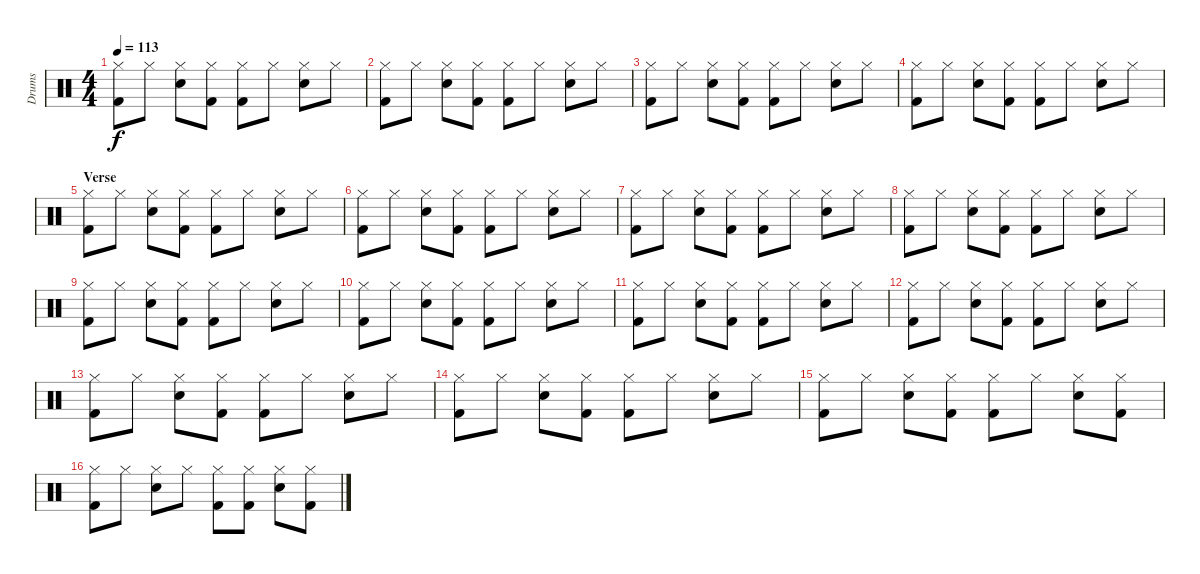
\track ("Drums" "Drums") {instrument percussion}
\staff {score}
\articulation defaults
\ts (4 4)
\tempo 113
\clef neutral
\ks c
("Hi-Hat (closed)" "Kick (hit) 2").8{dy f} "Hi-Hat (closed)".8 ("Hi-Hat (closed)" "Snare (hit) 2").8 ("Hi-Hat (closed)" "Kick (hit) 2").8 ("Hi-Hat (closed)" "Kick (hit) 2").8 "Hi-Hat (closed)".8 ("Hi-Hat (closed)" "Snare (hit) 2").8 "Hi-Hat (closed)".8 |
("Hi-Hat (closed)" "Kick (hit) 2").8 "Hi-Hat (closed)".8 ("Hi-Hat (closed)" "Snare (hit) 2").8 ("Hi-Hat (closed)" "Kick (hit) 2").8 ("Hi-Hat (closed)" "Kick (hit) 2").8 "Hi-Hat (closed)".8 ("Hi-Hat (closed)" "Snare (hit) 2").8 "Hi-Hat (closed)".8 |
("Hi-Hat (closed)" "Kick (hit) 2").8 "Hi-Hat (closed)".8 ("Hi-Hat (closed)" "Snare (hit) 2").8 ("Hi-Hat (closed)" "Kick (hit) 2").8 ("Hi-Hat (closed)" "Kick (hit) 2").8 "Hi-Hat (closed)".8 ("Hi-Hat (closed)" "Snare (hit) 2").8 "Hi-Hat (closed)".8 |
("Hi-Hat (closed)" "Kick (hit) 2").8 "Hi-Hat (closed)".8 ("Hi-Hat (closed)" "Snare (hit) 2").8 ("Hi-Hat (closed)" "Kick (hit) 2").8 ("Hi-Hat (closed)" "Kick (hit) 2").8 "Hi-Hat (closed)".8 ("Hi-Hat (closed)" "Snare (hit) 2").8 "Hi-Hat (closed)".8 |
\section ("" "Verse")
("Hi-Hat (closed)" "Kick (hit) 2").8 "Hi-Hat (closed)".8 ("Hi-Hat (closed)" "Snare (hit) 2").8 ("Hi-Hat (closed)" "Kick (hit) 2").8 ("Hi-Hat (closed)" "Kick (hit) 2").8 "Hi-Hat (closed)".8 ("Hi-Hat (closed)" "Snare (hit) 2").8 "Hi-Hat (closed)".8 |
("Hi-Hat (closed)" "Kick (hit) 2").8 "Hi-Hat (closed)".8 ("Hi-Hat (closed)" "Snare (hit) 2").8 ("Hi-Hat (closed)" "Kick (hit) 2").8 ("Hi-Hat (closed)" "Kick (hit) 2").8 "Hi-Hat (closed)".8 ("Hi-Hat (closed)" "Snare (hit) 2").8 "Hi-Hat (closed)".8 |
("Hi-Hat (closed)" "Kick (hit) 2").8 "Hi-Hat (closed)".8 ("Hi-Hat (closed)" "Snare (hit) 2").8 ("Hi-Hat (closed)" "Kick (hit) 2").8 ("Hi-Hat (closed)" "Kick (hit) 2").8 "Hi-Hat (closed)".8 ("Hi-Hat (closed)" "Snare (hit) 2").8 "Hi-Hat (closed)".8 |
("Hi-Hat (closed)" "Kick (hit) 2").8 "Hi-Hat (closed)".8 ("Hi-Hat (closed)" "Snare (hit) 2").8 ("Hi-Hat (closed)" "Kick (hit) 2").8 ("Hi-Hat (closed)" "Kick (hit) 2").8 "Hi-Hat (closed)".8 ("Hi-Hat (closed)" "Snare (hit) 2").8 "Hi-Hat (closed)".8 |
("Hi-Hat (closed)" "Kick (hit) 2").8 "Hi-Hat (closed)".8 ("Hi-Hat (closed)" "Snare (hit) 2").8 ("Hi-Hat (closed)" "Kick (hit) 2").8 ("Hi-Hat (closed)" "Kick (hit) 2").8 "Hi-Hat (closed)".8 ("Hi-Hat (closed)" "Snare (hit) 2").8 "Hi-Hat (closed)".8 |
("Hi-Hat (closed)" "Kick (hit) 2").8 "Hi-Hat (closed)".8 ("Hi-Hat (closed)" "Snare (hit) 2").8 ("Hi-Hat (closed)" "Kick (hit) 2").8 ("Hi-Hat (closed)" "Kick (hit) 2").8 "Hi-Hat (closed)".8 ("Hi-Hat (closed)" "Snare (hit) 2").8 "Hi-Hat (closed)".8 |
("Hi-Hat (closed)" "Kick (hit) 2").8 "Hi-Hat (closed)".8 ("Hi-Hat (closed)" "Snare (hit) 2").8 ("Hi-Hat (closed)" "Kick (hit) 2").8 ("Hi-Hat (closed)" "Kick (hit) 2").8 "Hi-Hat (closed)".8 ("Hi-Hat (closed)" "Snare (hit) 2").8 "Hi-Hat (closed)".8 |
("Hi-Hat (closed)" "Kick (hit) 2").8 "Hi-Hat (closed)".8 ("Hi-Hat (closed)" "Snare (hit) 2").8 ("Hi-Hat (closed)" "Kick (hit) 2").8 ("Hi-Hat (closed)" "Kick (hit) 2").8 "Hi-Hat (closed)".8 ("Hi-Hat (closed)" "Snare (hit) 2").8 "Hi-Hat (closed)".8 |
("Hi-Hat (closed)" "Kick (hit) 2").8 "Hi-Hat (closed)".8 ("Hi-Hat (closed)" "Snare (hit) 2").8 ("Hi-Hat (closed)" "Kick (hit) 2").8 ("Hi-Hat (closed)" "Kick (hit) 2").8 "Hi-Hat (closed)".8 ("Hi-Hat (closed)" "Snare (hit) 2").8 "Hi-Hat (closed)".8 |
("Hi-Hat (closed)" "Kick (hit) 2").8 "Hi-Hat (closed)".8 ("Hi-Hat (closed)" "Snare (hit) 2").8 ("Hi-Hat (closed)" "Kick (hit) 2").8 ("Hi-Hat (closed)" "Kick (hit) 2").8 "Hi-Hat (closed)".8 ("Hi-Hat (closed)" "Snare (hit) 2").8 "Hi-Hat (closed)".8 |
("Hi-Hat (closed)" "Kick (hit) 2").8 "Hi-Hat (closed)".8 ("Hi-Hat (closed)" "Snare (hit) 2").8 ("Hi-Hat (closed)" "Kick (hit) 2").8 ("Hi-Hat (closed)" "Kick (hit) 2").8 "Hi-Hat (closed)".8 ("Hi-Hat (closed)" "Snare (hit) 2").8 ("Hi-Hat (closed)" "Kick (hit) 2").8 |
("Hi-Hat (closed)" "Kick (hit) 2").8 "Hi-Hat (closed)".8 ("Hi-Hat (closed)" "Snare (hit) 2").8 "Hi-Hat (closed)".8 ("Hi-Hat (closed)" "Kick (hit) 2").8 ("Hi-Hat (closed)" "Kick (hit) 2").8 ("Hi-Hat (closed)" "Snare (hit) 2").8 ("Hi-Hat (closed)" "Kick (hit) 2").8
